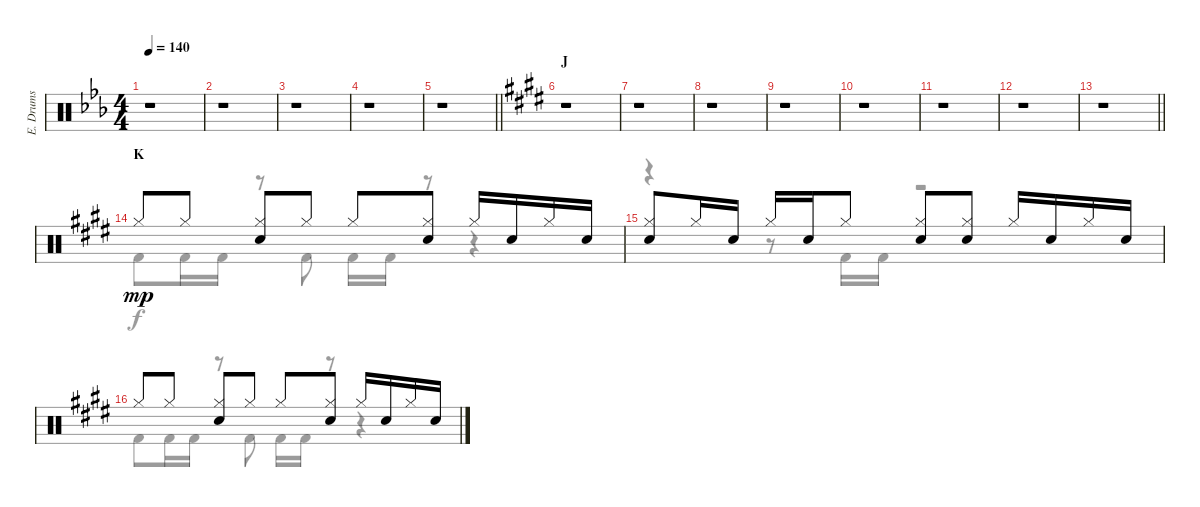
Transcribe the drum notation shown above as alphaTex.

\track ("E. Drums" "E. Drums") {instrument percussion}
\staff {score}
\articulation defaults
\voice
\ts (4 4)
\tempo 140
\clef neutral
\ks eb
r.1{dy mp} |
r.1 |
r.1 |
r.1 |
\barLineRight lightlight
r.1 |
\section ("" "J")
\ks e
r.1 |
r.1 |
r.1 |
r.1 |
r.1 |
r.1 |
r.1 |
\barLineRight lightlight
r.1 |
\section ("" "K")
"Hi-Hat (closed)".8 "Hi-Hat (closed)".8 ("Hi-Hat (closed)" "Electric Snare (hit)").8 "Hi-Hat (closed)".8 "Hi-Hat (closed)".8 ("Hi-Hat (closed)" "Electric Snare (hit)").8 "Hi-Hat (closed)".16 "Electric Snare (hit)".16 "Hi-Hat (closed)".16 "Electric Snare (hit)".16 |
("Hi-Hat (closed)" "Electric Snare (hit)").8 "Hi-Hat (closed)".16 "Electric Snare (hit)".16 "Hi-Hat (closed)".16 "Electric Snare (hit)".16 "Hi-Hat (closed)".8 ("Hi-Hat (closed)" "Electric Snare (hit)").8 ("Hi-Hat (closed)" "Electric Snare (hit)").8 "Hi-Hat (closed)".16 "Electric Snare (hit)".16 "Hi-Hat (closed)".16 "Electric Snare (hit)".16 |
"Hi-Hat (closed)".8 "Hi-Hat (closed)".8 ("Hi-Hat (closed)" "Electric Snare (hit)").8 "Hi-Hat (closed)".8 "Hi-Hat (closed)".8 ("Hi-Hat (closed)" "Electric Snare (hit)").8 "Hi-Hat (closed)".16 "Electric Snare (hit)".16 "Hi-Hat (closed)".16 "Electric Snare (hit)".16
\voice
\clef neutral
\ottava regular
\simile none
\ks eb
r.1{dy f} |
r.1 |
r.1 |
r.1 |
\barLineRight lightlight
r.1 |
\ks e
r.1 |
r.1 |
r.1 |
r.1 |
r.1 |
r.1 |
r.1 |
\barLineRight lightlight
r.1 |
"Kick (hit) 2".8 "Kick (hit) 2".16 "Kick (hit) 2".16 r.8 "Kick (hit) 2".8 "Kick (hit) 2".16 "Kick (hit) 2".16 r.8 r.4 |
r.4 r.8 "Kick (hit) 2".16 "Kick (hit) 2".16 r.2 |
"Kick (hit) 2".8 "Kick (hit) 2".16 "Kick (hit) 2".16 r.8 "Kick (hit) 2".8 "Kick (hit) 2".16 "Kick (hit) 2".16 r.8 r.4
